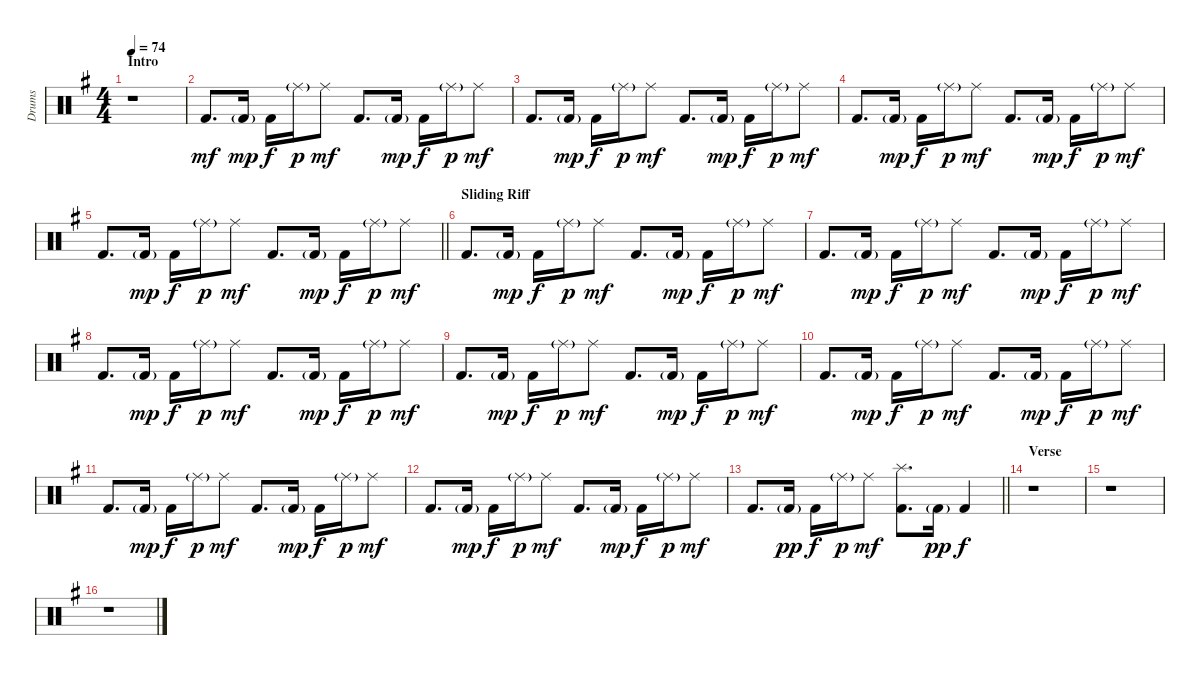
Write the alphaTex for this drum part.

\track ("Drums" "Drums") {instrument percussion}
\staff {score}
\articulation defaults
\ts (4 4)
\section ("" "Intro")
\tempo 74
\clef neutral
\ks g
r.1{dy mf} |
"Kick (hit) 2".8{d} "Kick (hit) 2"{g}.16{dy mp} "Kick (hit) 2".16{dy f} "Ride (middle)"{g}.16{dy p} "Ride (middle)".8{dy mf} "Kick (hit) 2".8{d} "Kick (hit) 2"{g}.16{dy mp} "Kick (hit) 2".16{dy f} "Ride (middle)"{g}.16{dy p} "Ride (middle)".8{dy mf} |
"Kick (hit) 2".8{d} "Kick (hit) 2"{g}.16{dy mp} "Kick (hit) 2".16{dy f} "Ride (middle)"{g}.16{dy p} "Ride (middle)".8{dy mf} "Kick (hit) 2".8{d} "Kick (hit) 2"{g}.16{dy mp} "Kick (hit) 2".16{dy f} "Ride (middle)"{g}.16{dy p} "Ride (middle)".8{dy mf} |
"Kick (hit) 2".8{d} "Kick (hit) 2"{g}.16{dy mp} "Kick (hit) 2".16{dy f} "Ride (middle)"{g}.16{dy p} "Ride (middle)".8{dy mf} "Kick (hit) 2".8{d} "Kick (hit) 2"{g}.16{dy mp} "Kick (hit) 2".16{dy f} "Ride (middle)"{g}.16{dy p} "Ride (middle)".8{dy mf} |
\barLineRight lightlight "Kick (hit) 2".8{d} "Kick (hit) 2"{g}.16{dy mp} "Kick (hit) 2".16{dy f} "Ride (middle)"{g}.16{dy p} "Ride (middle)".8{dy mf} "Kick (hit) 2".8{d} "Kick (hit) 2"{g}.16{dy mp} "Kick (hit) 2".16{dy f} "Ride (middle)"{g}.16{dy p} "Ride (middle)".8{dy mf}
|
\section ("" "Sliding Riff")
"Kick (hit) 2".8{d} "Kick (hit) 2"{g}.16{dy mp} "Kick (hit) 2".16{dy f} "Ride (middle)"{g}.16{dy p} "Ride (middle)".8{dy mf} "Kick (hit) 2".8{d} "Kick (hit) 2"{g}.16{dy mp} "Kick (hit) 2".16{dy f} "Ride (middle)"{g}.16{dy p} "Ride (middle)".8{dy mf} |
"Kick (hit) 2".8{d} "Kick (hit) 2"{g}.16{dy mp} "Kick (hit) 2".16{dy f} "Ride (middle)"{g}.16{dy p} "Ride (middle)".8{dy mf} "Kick (hit) 2".8{d} "Kick (hit) 2"{g}.16{dy mp} "Kick (hit) 2".16{dy f} "Ride (middle)"{g}.16{dy p} "Ride (middle)".8{dy mf} |
"Kick (hit) 2".8{d} "Kick (hit) 2"{g}.16{dy mp} "Kick (hit) 2".16{dy f} "Ride (middle)"{g}.16{dy p} "Ride (middle)".8{dy mf} "Kick (hit) 2".8{d} "Kick (hit) 2"{g}.16{dy mp} "Kick (hit) 2".16{dy f} "Ride (middle)"{g}.16{dy p} "Ride (middle)".8{dy mf} |
"Kick (hit) 2".8{d} "Kick (hit) 2"{g}.16{dy mp} "Kick (hit) 2".16{dy f} "Ride (middle)"{g}.16{dy p} "Ride (middle)".8{dy mf} "Kick (hit) 2".8{d} "Kick (hit) 2"{g}.16{dy mp} "Kick (hit) 2".16{dy f} "Ride (middle)"{g}.16{dy p} "Ride (middle)".8{dy mf} |
"Kick (hit) 2".8{d} "Kick (hit) 2"{g}.16{dy mp} "Kick (hit) 2".16{dy f} "Ride (middle)"{g}.16{dy p} "Ride (middle)".8{dy mf} "Kick (hit) 2".8{d} "Kick (hit) 2"{g}.16{dy mp} "Kick (hit) 2".16{dy f} "Ride (middle)"{g}.16{dy p} "Ride (middle)".8{dy mf} |
"Kick (hit) 2".8{d} "Kick (hit) 2"{g}.16{dy mp} "Kick (hit) 2".16{dy f} "Ride (middle)"{g}.16{dy p} "Ride (middle)".8{dy mf} "Kick (hit) 2".8{d} "Kick (hit) 2"{g}.16{dy mp} "Kick (hit) 2".16{dy f} "Ride (middle)"{g}.16{dy p} "Ride (middle)".8{dy mf} |
"Kick (hit) 2".8{d} "Kick (hit) 2"{g}.16{dy mp} "Kick (hit) 2".16{dy f} "Ride (middle)"{g}.16{dy p} "Ride (middle)".8{dy mf} "Kick (hit) 2".8{d} "Kick (hit) 2"{g}.16{dy mp} "Kick (hit) 2".16{dy f} "Ride (middle)"{g}.16{dy p} "Ride (middle)".8{dy mf} |
\barLineRight lightlight "Kick (hit) 2".8{d} "Kick (hit) 2"{g}.16{dy pp} "Kick (hit) 2".16{dy f} "Ride (middle)"{g}.16{dy p} "Ride (middle)".8{dy mf}
("Kick (hit) 2" "Splash (hit)").8{d} "Kick (hit) 2"{g}.16{dy pp} "Kick (hit) 2".4{dy f} |
\section ("" "Verse")
r.1 |
r.1 |
r.1
